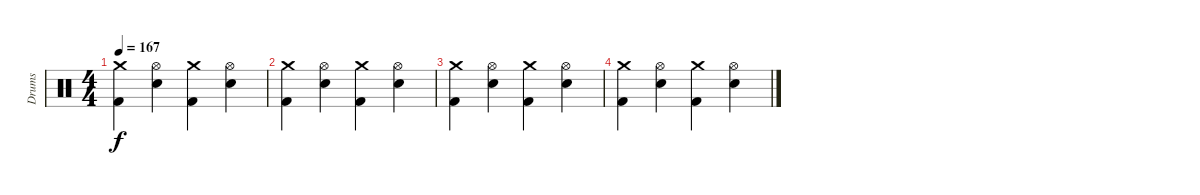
\track ("Drums" "Drums") {instrument percussion}
\staff {score}
\articulation defaults
\ts (4 4)
\tempo 167
\clef neutral
\ks c
("Crash medium (hit)" "Kick (hit) 2").4{dy f} ("Hi-Hat (open)" "Snare (hit) 2").4 ("Kick (hit) 2" "Crash medium (hit)").4 ("Hi-Hat (open)" "Snare (hit) 2").4 |
("Crash medium (hit)" "Kick (hit) 2").4 ("Hi-Hat (open)" "Snare (hit) 2").4 ("Kick (hit) 2" "Crash medium (hit)").4 ("Hi-Hat (open)" "Snare (hit) 2").4 |
("Crash medium (hit)" "Kick (hit) 2").4 ("Hi-Hat (open)" "Snare (hit) 2").4 ("Kick (hit) 2" "Crash medium (hit)").4 ("Hi-Hat (open)" "Snare (hit) 2").4 |
("Crash medium (hit)" "Kick (hit) 2").4 ("Hi-Hat (open)" "Snare (hit) 2").4 ("Kick (hit) 2" "Crash medium (hit)").4 ("Hi-Hat (open)" "Snare (hit) 2").4
